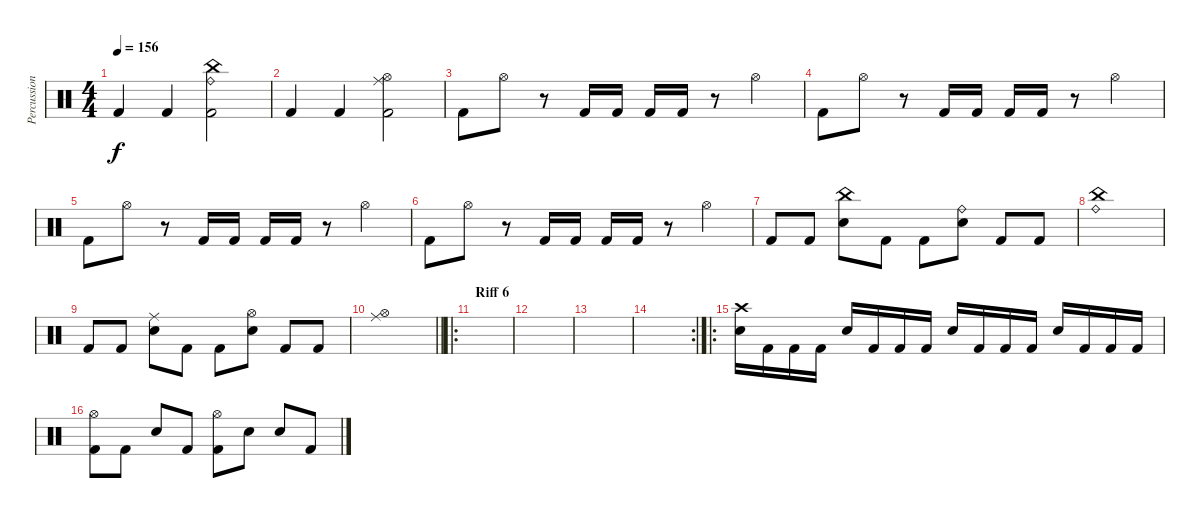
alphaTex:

\track ("Percussion" "Percussion") {instrument percussion}
\staff {score}
\articulation defaults
\ts (4 4)
\tempo 156
\clef neutral
\ks c "Kick (hit) 2".4{dy f} "Kick (hit) 2".4
("China (hit)" "Ride (bell)" "Kick (hit) 2").2 |
"Kick (hit) 2".4 "Kick (hit) 2".4 ("Ride (middle)" "Hi-Hat (open)" "Kick (hit) 2").2 |
"Kick (hit) 2".8 "Hi-Hat (open)".8 r.8 "Kick (hit) 2".16 "Kick (hit) 2".16 "Kick (hit) 2".16 "Kick (hit) 2".16 r.8 "Hi-Hat (open)".4 |
"Kick (hit) 2".8 "Hi-Hat (open)".8 r.8 "Kick (hit) 2".16 "Kick (hit) 2".16 "Kick (hit) 2".16 "Kick (hit) 2".16 r.8 "Hi-Hat (open)".4 |
"Kick (hit) 2".8 "Hi-Hat (open)".8 r.8 "Kick (hit) 2".16 "Kick (hit) 2".16 "Kick (hit) 2".16 "Kick (hit) 2".16 r.8 "Hi-Hat (open)".4 |
"Kick (hit) 2".8 "Hi-Hat (open)".8 r.8 "Kick (hit) 2".16 "Kick (hit) 2".16 "Kick (hit) 2".16 "Kick (hit) 2".16 r.8 "Hi-Hat (open)".4 |
"Kick (hit) 2".8 "Kick (hit) 2".8 ("China (hit)" "Snare (hit) 2").8 "Kick (hit) 2".8 "Kick (hit) 2".8 ("Ride (bell)" "Snare (hit) 2").8 "Kick (hit) 2".8 "Kick (hit) 2".8 |
("China (hit)" "Ride (bell)").1 |
"Kick (hit) 2".8 "Kick (hit) 2".8 ("Ride (middle)" "Snare (hit) 2").8 "Kick (hit) 2".8 "Kick (hit) 2".8 ("Hi-Hat (open)" "Snare (hit) 2").8 "Kick (hit) 2".8 "Kick (hit) 2".8 |
\barLineRight lightlight
("Ride (middle)" "Hi-Hat (open)").1 |
\ro
\section ("" "Riff 6")
|
|
|
\rc 2
|
\ro
("Crash high (hit)" "Snare (hit) 2").16 "Kick (hit) 2".16 "Kick (hit) 2".16 "Kick (hit) 2".16 "Snare (hit) 2".16 "Kick (hit) 2".16 "Kick (hit) 2".16 "Kick (hit) 2".16 "Snare (hit) 2".16 "Kick (hit) 2".16 "Kick (hit) 2".16 "Kick (hit) 2".16 "Snare (hit) 2".16 "Kick (hit) 2".16 "Kick (hit) 2".16 "Kick (hit) 2".16 |
("Hi-Hat (open)" "Kick (hit) 2").8 "Kick (hit) 2".8 "Snare (hit) 2".8 "Kick (hit) 2".8 ("Hi-Hat (open)" "Kick (hit) 2").8 "Snare (hit) 2".8 "Snare (hit) 2".8 "Kick (hit) 2".8
